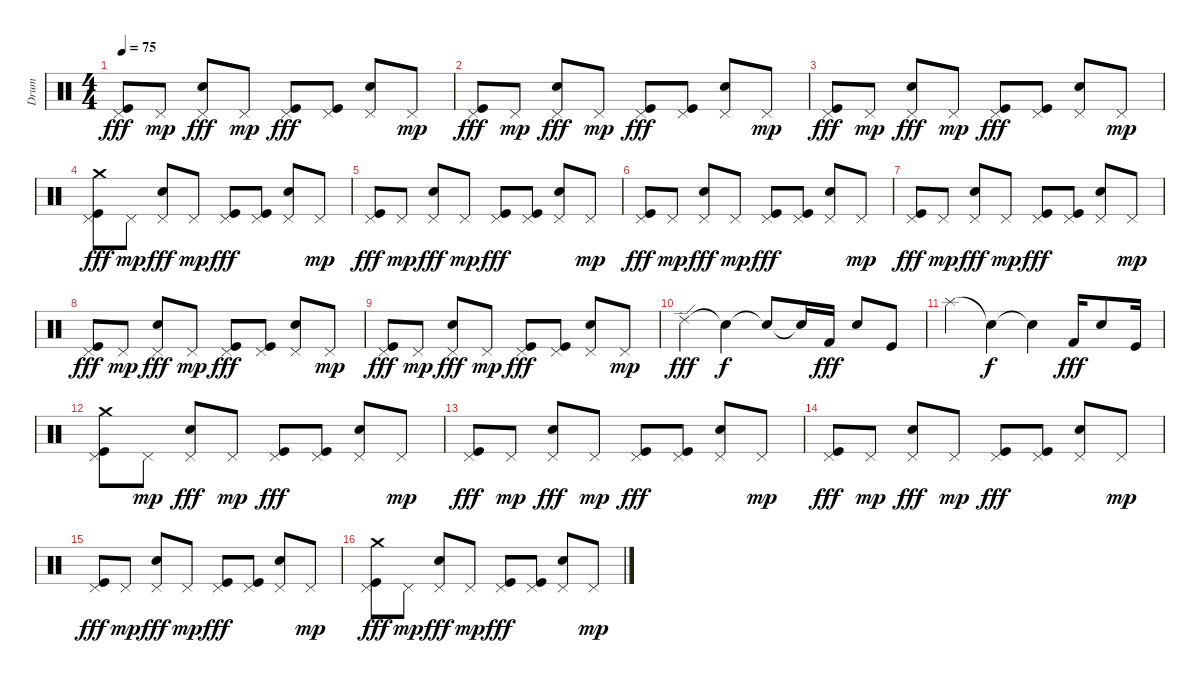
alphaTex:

\track ("Drum" "Drum") {instrument percussion}
\staff {score}
\articulation defaults
\ts (4 4)
\tempo 75
\clef neutral
\ks c
("Pedal Hi-Hat (hit)" "Kick (hit)").8{dy fff} "Pedal Hi-Hat (hit)".8{dy mp} ("Pedal Hi-Hat (hit)" "Snare (hit) 2").8{dy fff} "Pedal Hi-Hat (hit)".8{dy mp} ("Pedal Hi-Hat (hit)" "Kick (hit)").8{dy fff} ("Pedal Hi-Hat (hit)" "Kick (hit)").8 ("Pedal Hi-Hat (hit)" "Snare (hit) 2").8 "Pedal Hi-Hat (hit)".8{dy mp} |
("Pedal Hi-Hat (hit)" "Kick (hit)").8{dy fff} "Pedal Hi-Hat (hit)".8{dy mp} ("Pedal Hi-Hat (hit)" "Snare (hit) 2").8{dy fff} "Pedal Hi-Hat (hit)".8{dy mp} ("Pedal Hi-Hat (hit)" "Kick (hit)").8{dy fff} ("Pedal Hi-Hat (hit)" "Kick (hit)").8 ("Pedal Hi-Hat (hit)" "Snare (hit) 2").8 "Pedal Hi-Hat (hit)".8{dy mp} |
("Pedal Hi-Hat (hit)" "Kick (hit)").8{dy fff} "Pedal Hi-Hat (hit)".8{dy mp} ("Pedal Hi-Hat (hit)" "Snare (hit) 2").8{dy fff} "Pedal Hi-Hat (hit)".8{dy mp} ("Pedal Hi-Hat (hit)" "Kick (hit)").8{dy fff} ("Pedal Hi-Hat (hit)" "Kick (hit)").8 ("Pedal Hi-Hat (hit)" "Snare (hit) 2").8 "Pedal Hi-Hat (hit)".8{dy mp} |
("Pedal Hi-Hat (hit)" "Kick (hit)" "Crash medium (hit)").8{dy fff} "Pedal Hi-Hat (hit)".8{dy mp} ("Pedal Hi-Hat (hit)" "Snare (hit) 2").8{dy fff} "Pedal Hi-Hat (hit)".8{dy mp} ("Pedal Hi-Hat (hit)" "Kick (hit)").8{dy fff} ("Pedal Hi-Hat (hit)" "Kick (hit)").8 ("Pedal Hi-Hat (hit)" "Snare (hit) 2").8 "Pedal Hi-Hat (hit)".8{dy mp} |
("Pedal Hi-Hat (hit)" "Kick (hit)").8{dy fff} "Pedal Hi-Hat (hit)".8{dy mp} ("Pedal Hi-Hat (hit)" "Snare (hit) 2").8{dy fff} "Pedal Hi-Hat (hit)".8{dy mp} ("Pedal Hi-Hat (hit)" "Kick (hit)").8{dy fff} ("Pedal Hi-Hat (hit)" "Kick (hit)").8 ("Pedal Hi-Hat (hit)" "Snare (hit) 2").8 "Pedal Hi-Hat (hit)".8{dy mp} |
("Pedal Hi-Hat (hit)" "Kick (hit)").8{dy fff} "Pedal Hi-Hat (hit)".8{dy mp} ("Pedal Hi-Hat (hit)" "Snare (hit) 2").8{dy fff} "Pedal Hi-Hat (hit)".8{dy mp} ("Pedal Hi-Hat (hit)" "Kick (hit)").8{dy fff} ("Pedal Hi-Hat (hit)" "Kick (hit)").8 ("Pedal Hi-Hat (hit)" "Snare (hit) 2").8 "Pedal Hi-Hat (hit)".8{dy mp} |
("Pedal Hi-Hat (hit)" "Kick (hit)").8{dy fff} "Pedal Hi-Hat (hit)".8{dy mp} ("Pedal Hi-Hat (hit)" "Snare (hit) 2").8{dy fff} "Pedal Hi-Hat (hit)".8{dy mp} ("Pedal Hi-Hat (hit)" "Kick (hit)").8{dy fff} ("Pedal Hi-Hat (hit)" "Kick (hit)").8 ("Pedal Hi-Hat (hit)" "Snare (hit) 2").8 "Pedal Hi-Hat (hit)".8{dy mp} |
("Pedal Hi-Hat (hit)" "Kick (hit)").8{dy fff} "Pedal Hi-Hat (hit)".8{dy mp} ("Pedal Hi-Hat (hit)" "Snare (hit) 2").8{dy fff} "Pedal Hi-Hat (hit)".8{dy mp} ("Pedal Hi-Hat (hit)" "Kick (hit)").8{dy fff} ("Pedal Hi-Hat (hit)" "Kick (hit)").8 ("Pedal Hi-Hat (hit)" "Snare (hit) 2").8 "Pedal Hi-Hat (hit)".8{dy mp} |
("Pedal Hi-Hat (hit)" "Kick (hit)").8{dy fff} "Pedal Hi-Hat (hit)".8{dy mp} ("Pedal Hi-Hat (hit)" "Snare (hit) 2").8{dy fff} "Pedal Hi-Hat (hit)".8{dy mp} ("Pedal Hi-Hat (hit)" "Kick (hit)").8{dy fff} ("Pedal Hi-Hat (hit)" "Kick (hit)").8 ("Pedal Hi-Hat (hit)" "Snare (hit) 2").8 "Pedal Hi-Hat (hit)".8{dy mp} |
"Ride (edge) 2".4{dy fff} "Snare (hit)"{t}.4{dy f} "Snare (hit)"{t}.8 "Snare (hit)"{t}.16 "Kick (hit) 2".16{dy fff} "Electric Snare (hit)".8 "Kick (hit)".8 |
"Splash (hit)".4 "Snare (hit)"{t}.4{dy f} "Snare (hit)"{t}.4 "Kick (hit) 2".16{dy fff} "Electric Snare (hit)".8 "Kick (hit)".16 |
("Pedal Hi-Hat (hit)" "Kick (hit)" "Crash medium (hit)").8 "Pedal Hi-Hat (hit)".8{dy mp} ("Pedal Hi-Hat (hit)" "Snare (hit) 2").8{dy fff} "Pedal Hi-Hat (hit)".8{dy mp} ("Pedal Hi-Hat (hit)" "Kick (hit)").8{dy fff} ("Pedal Hi-Hat (hit)" "Kick (hit)").8 ("Pedal Hi-Hat (hit)" "Snare (hit) 2").8 "Pedal Hi-Hat (hit)".8{dy mp} |
("Pedal Hi-Hat (hit)" "Kick (hit)").8{dy fff} "Pedal Hi-Hat (hit)".8{dy mp} ("Pedal Hi-Hat (hit)" "Snare (hit) 2").8{dy fff} "Pedal Hi-Hat (hit)".8{dy mp} ("Pedal Hi-Hat (hit)" "Kick (hit)").8{dy fff} ("Pedal Hi-Hat (hit)" "Kick (hit)").8 ("Pedal Hi-Hat (hit)" "Snare (hit) 2").8 "Pedal Hi-Hat (hit)".8{dy mp} |
("Pedal Hi-Hat (hit)" "Kick (hit)").8{dy fff} "Pedal Hi-Hat (hit)".8{dy mp} ("Pedal Hi-Hat (hit)" "Snare (hit) 2").8{dy fff} "Pedal Hi-Hat (hit)".8{dy mp} ("Pedal Hi-Hat (hit)" "Kick (hit)").8{dy fff} ("Pedal Hi-Hat (hit)" "Kick (hit)").8 ("Pedal Hi-Hat (hit)" "Snare (hit) 2").8 "Pedal Hi-Hat (hit)".8{dy mp} |
("Pedal Hi-Hat (hit)" "Kick (hit)").8{dy fff} "Pedal Hi-Hat (hit)".8{dy mp} ("Pedal Hi-Hat (hit)" "Snare (hit) 2").8{dy fff} "Pedal Hi-Hat (hit)".8{dy mp} ("Pedal Hi-Hat (hit)" "Kick (hit)").8{dy fff} ("Pedal Hi-Hat (hit)" "Kick (hit)").8 ("Pedal Hi-Hat (hit)" "Snare (hit) 2").8 "Pedal Hi-Hat (hit)".8{dy mp} |
("Pedal Hi-Hat (hit)" "Kick (hit)" "Crash medium (hit)").8{dy fff} "Pedal Hi-Hat (hit)".8{dy mp} ("Pedal Hi-Hat (hit)" "Snare (hit) 2").8{dy fff} "Pedal Hi-Hat (hit)".8{dy mp} ("Pedal Hi-Hat (hit)" "Kick (hit)").8{dy fff} ("Pedal Hi-Hat (hit)" "Kick (hit)").8 ("Pedal Hi-Hat (hit)" "Snare (hit) 2").8 "Pedal Hi-Hat (hit)".8{dy mp}
